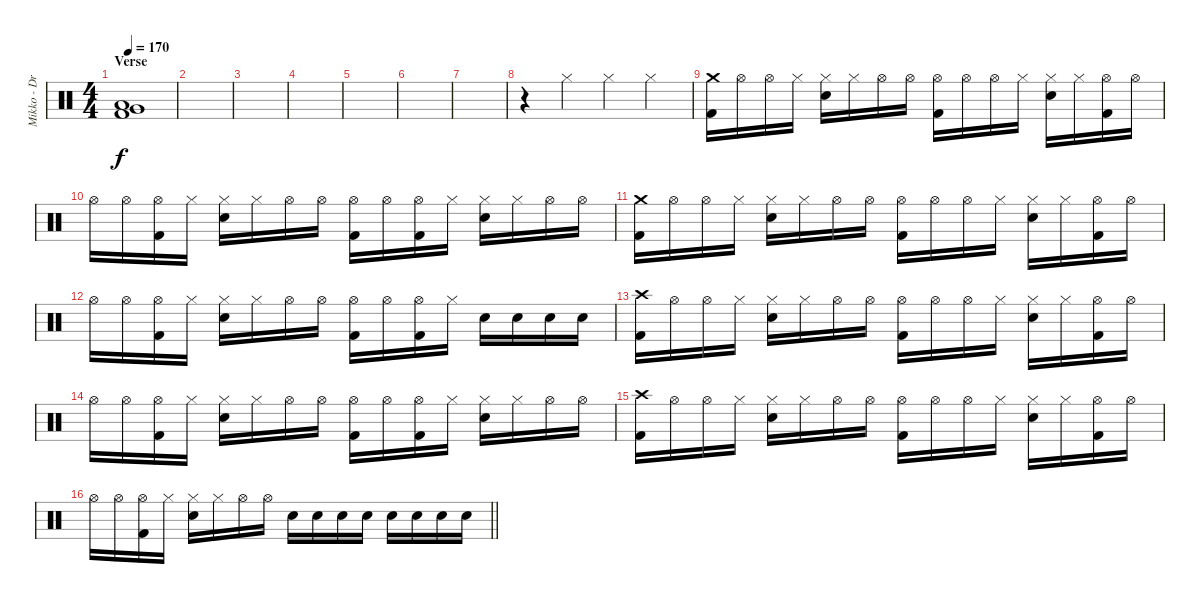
\track ("Mikko - Drums" "Mikko - Dr") {instrument percussion}
\staff {score}
\articulation defaults
\ts (4 4)
\section ("" "Verse")
\tempo 170
\clef neutral
\ks c
("Low Tom (hit)" "Very Low Tom (hit)" "Kick (hit) 2").1{dy f} |
|
|
|
|
|
|
r.4 "Hi-Hat (closed)".4 "Hi-Hat (closed)".4 "Hi-Hat (closed)".4 |
("Crash medium (hit)" "Kick (hit) 2").16 "Hi-Hat (open)".16 "Hi-Hat (open)".16 "Hi-Hat (closed)".16 ("Hi-Hat (closed)" "Snare (hit) 2").16 "Hi-Hat (closed)".16 "Hi-Hat (open)".16 "Hi-Hat (open)".16 ("Hi-Hat (open)" "Kick (hit) 2").16 "Hi-Hat (open)".16 "Hi-Hat (open)".16 "Hi-Hat (closed)".16 ("Hi-Hat (closed)" "Snare (hit) 2").16 "Hi-Hat (closed)".16 ("Hi-Hat (open)" "Kick (hit) 2").16 "Hi-Hat (open)".16 |
"Hi-Hat (open)".16 "Hi-Hat (open)".16 ("Hi-Hat (open)" "Kick (hit) 2").16 "Hi-Hat (closed)".16 ("Hi-Hat (closed)" "Snare (hit) 2").16 "Hi-Hat (closed)".16 "Hi-Hat (open)".16 "Hi-Hat (open)".16 ("Hi-Hat (open)" "Kick (hit) 2").16 "Hi-Hat (open)".16 ("Hi-Hat (open)" "Kick (hit) 2").16 "Hi-Hat (closed)".16 ("Hi-Hat (closed)" "Snare (hit) 2").16 "Hi-Hat (closed)".16 "Hi-Hat (open)".16 "Hi-Hat (open)".16 |
("Crash medium (hit)" "Kick (hit) 2").16 "Hi-Hat (open)".16 "Hi-Hat (open)".16 "Hi-Hat (closed)".16 ("Hi-Hat (closed)" "Snare (hit) 2").16 "Hi-Hat (closed)".16 "Hi-Hat (open)".16 "Hi-Hat (open)".16 ("Hi-Hat (open)" "Kick (hit) 2").16 "Hi-Hat (open)".16 "Hi-Hat (open)".16 "Hi-Hat (closed)".16 ("Hi-Hat (closed)" "Snare (hit) 2").16 "Hi-Hat (closed)".16 ("Hi-Hat (open)" "Kick (hit) 2").16 "Hi-Hat (open)".16 |
"Hi-Hat (open)".16 "Hi-Hat (open)".16 ("Hi-Hat (open)" "Kick (hit) 2").16 "Hi-Hat (closed)".16 ("Hi-Hat (closed)" "Snare (hit) 2").16 "Hi-Hat (closed)".16 "Hi-Hat (open)".16 "Hi-Hat (open)".16 ("Hi-Hat (open)" "Kick (hit) 2").16 "Hi-Hat (open)".16 ("Hi-Hat (open)" "Kick (hit) 2").16 "Hi-Hat (closed)".16 "Snare (hit) 2".16 "Snare (hit) 2".16 "Snare (hit) 2".16 "Snare (hit) 2".16 |
("Crash high (hit)" "Kick (hit) 2").16 "Hi-Hat (open)".16 "Hi-Hat (open)".16 "Hi-Hat (closed)".16 ("Hi-Hat (closed)" "Snare (hit) 2").16 "Hi-Hat (closed)".16 "Hi-Hat (open)".16 "Hi-Hat (open)".16 ("Hi-Hat (open)" "Kick (hit) 2").16 "Hi-Hat (open)".16 "Hi-Hat (open)".16 "Hi-Hat (closed)".16 ("Hi-Hat (closed)" "Snare (hit) 2").16 "Hi-Hat (closed)".16 ("Hi-Hat (open)" "Kick (hit) 2").16 "Hi-Hat (open)".16 |
"Hi-Hat (open)".16 "Hi-Hat (open)".16 ("Hi-Hat (open)" "Kick (hit) 2").16 "Hi-Hat (closed)".16 ("Hi-Hat (closed)" "Snare (hit) 2").16 "Hi-Hat (closed)".16 "Hi-Hat (open)".16 "Hi-Hat (open)".16 ("Hi-Hat (open)" "Kick (hit) 2").16 "Hi-Hat (open)".16 ("Hi-Hat (open)" "Kick (hit) 2").16 "Hi-Hat (closed)".16 ("Hi-Hat (closed)" "Snare (hit) 2").16 "Hi-Hat (closed)".16 "Hi-Hat (open)".16 "Hi-Hat (open)".16 |
("Crash high (hit)" "Kick (hit) 2").16 "Hi-Hat (open)".16 "Hi-Hat (open)".16 "Hi-Hat (closed)".16 ("Hi-Hat (closed)" "Snare (hit) 2").16 "Hi-Hat (closed)".16 "Hi-Hat (open)".16 "Hi-Hat (open)".16 ("Hi-Hat (open)" "Kick (hit) 2").16 "Hi-Hat (open)".16 "Hi-Hat (open)".16 "Hi-Hat (closed)".16 ("Hi-Hat (closed)" "Snare (hit) 2").16 "Hi-Hat (closed)".16 ("Hi-Hat (open)" "Kick (hit) 2").16 "Hi-Hat (open)".16 |
\barLineRight lightlight "Hi-Hat (open)".16 "Hi-Hat (open)".16
("Hi-Hat (open)" "Kick (hit) 2").16 "Hi-Hat (closed)".16 ("Hi-Hat (closed)" "Snare (hit) 2").16 "Hi-Hat (closed)".16 "Hi-Hat (open)".16 "Hi-Hat (open)".16 "Snare (hit) 2".16 "Snare (hit) 2".16 "Snare (hit) 2".16 "Snare (hit) 2".16 "Snare (hit) 2".16 "Snare (hit) 2".16 "Snare (hit) 2".16 "Snare (hit) 2".16
